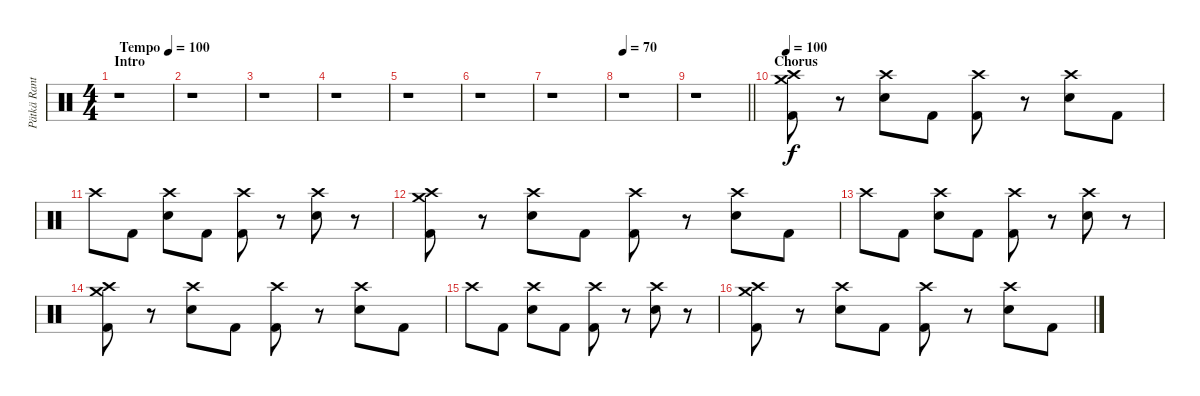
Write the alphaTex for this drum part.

\track ("Pätkä Rantala (Drums)" "Pätkä Rant") {instrument percussion}
\staff {score}
\articulation defaults
\ts (4 4)
\section ("" "Intro")
\tempo (100 "Tempo")
\clef neutral
\ks c
r.1{dy f} |
r.1 |
r.1 |
r.1 |
r.1 |
r.1 |
r.1 |
\tempo 70
r.1 |
\barLineRight lightlight
r.1 |
\section ("" "Chorus")
\tempo 100
("Crash medium (hit)" "Crash high (hit)" "Kick (hit) 2").8 r.8 ("Crash high (hit)" "Snare (hit) 2").8 "Kick (hit) 2".8 ("Crash high (hit)" "Kick (hit) 2").8 r.8 ("Crash high (hit)" "Snare (hit) 2").8 "Kick (hit) 2".8 |
"Crash high (hit)".8 "Kick (hit) 2".8 ("Crash high (hit)" "Snare (hit) 2").8 "Kick (hit) 2".8 ("Crash high (hit)" "Kick (hit) 2").8 r.8 ("Crash high (hit)" "Snare (hit) 2").8 r.8 |
("Crash medium (hit)" "Crash high (hit)" "Kick (hit) 2").8 r.8 ("Crash high (hit)" "Snare (hit) 2").8 "Kick (hit) 2".8 ("Crash high (hit)" "Kick (hit) 2").8 r.8 ("Crash high (hit)" "Snare (hit) 2").8 "Kick (hit) 2".8 |
"Crash high (hit)".8 "Kick (hit) 2".8 ("Crash high (hit)" "Snare (hit) 2").8 "Kick (hit) 2".8 ("Crash high (hit)" "Kick (hit) 2").8 r.8 ("Crash high (hit)" "Snare (hit) 2").8 r.8 |
("Crash medium (hit)" "Crash high (hit)" "Kick (hit) 2").8 r.8 ("Crash high (hit)" "Snare (hit) 2").8 "Kick (hit) 2".8 ("Crash high (hit)" "Kick (hit) 2").8 r.8 ("Crash high (hit)" "Snare (hit) 2").8 "Kick (hit) 2".8 |
"Crash high (hit)".8 "Kick (hit) 2".8 ("Crash high (hit)" "Snare (hit) 2").8 "Kick (hit) 2".8 ("Crash high (hit)" "Kick (hit) 2").8 r.8 ("Crash high (hit)" "Snare (hit) 2").8 r.8 |
("Crash medium (hit)" "Crash high (hit)" "Kick (hit) 2").8 r.8 ("Crash high (hit)" "Snare (hit) 2").8 "Kick (hit) 2".8 ("Crash high (hit)" "Kick (hit) 2").8 r.8 ("Crash high (hit)" "Snare (hit) 2").8 "Kick (hit) 2".8
